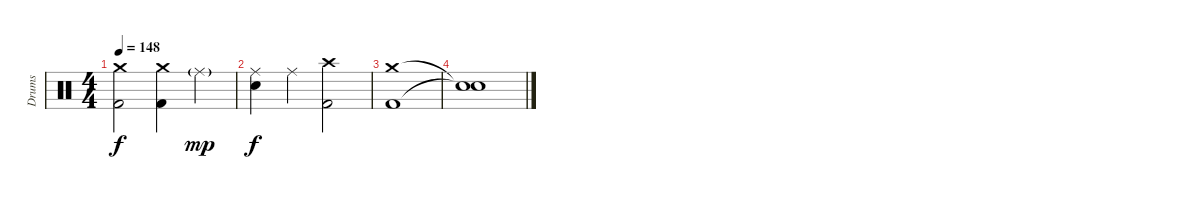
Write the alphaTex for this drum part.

\track ("Drums" "Drums") {instrument percussion}
\staff {score}
\articulation defaults
\ts (4 4)
\tempo 148
\clef neutral
\ks c
("Crash medium (hit)" "Kick (hit) 2").2{dy f} ("Crash medium (hit)" "Kick (hit) 2").4 "Ride (middle)"{g}.4{dy mp} |
("Ride (middle)" "Snare (hit) 2").4{dy f} "Ride (middle)".4 ("Crash high (hit)" "Kick (hit) 2").2 |
("Crash medium (hit)" "Kick (hit) 2").1 |
("Snare (hit)"{t} "Snare (hit)"{t}).1
